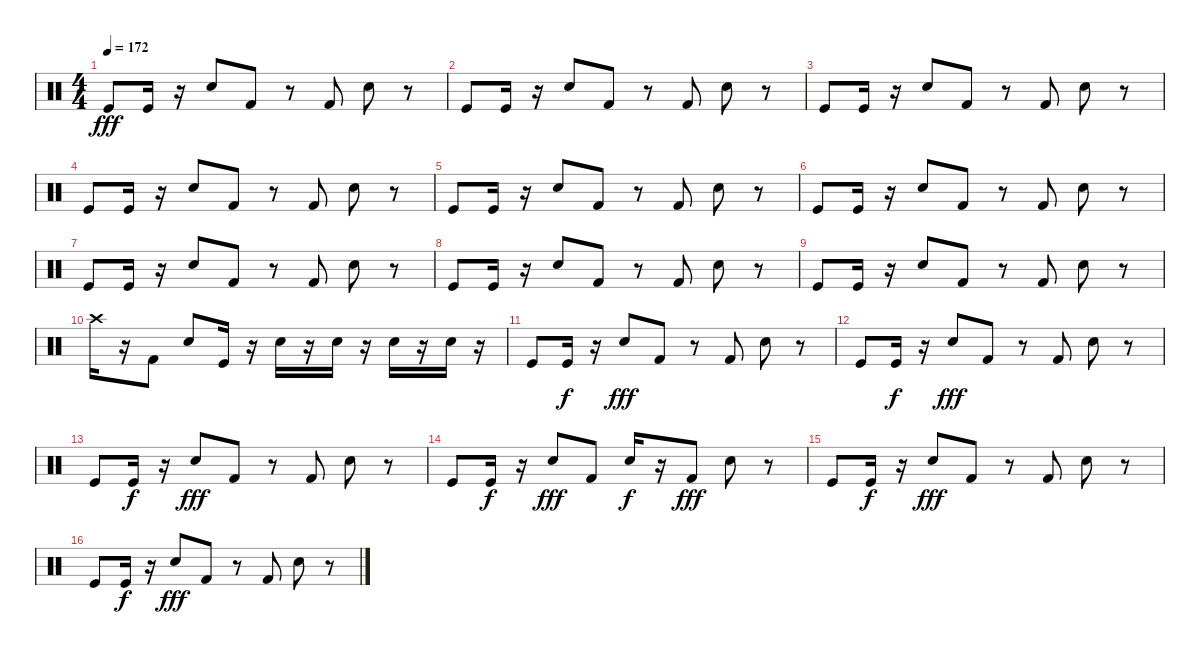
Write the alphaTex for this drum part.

\track "" {instrument percussion}
\staff {score}
\articulation defaults
\ts (4 4)
\tempo 172
\clef neutral
\ks c "Kick (hit)".8{dy fff} "Kick (hit)".16
r.16 "Snare (hit) 2".8 "Kick (hit) 2".8 r.8 "Kick (hit) 2".8 "Snare (hit) 2".8 r.8 |
"Kick (hit)".8 "Kick (hit)".16 r.16 "Snare (hit) 2".8 "Kick (hit) 2".8 r.8 "Kick (hit) 2".8 "Snare (hit) 2".8 r.8 |
"Kick (hit)".8 "Kick (hit)".16 r.16 "Snare (hit) 2".8 "Kick (hit) 2".8 r.8 "Kick (hit) 2".8 "Snare (hit) 2".8 r.8 |
"Kick (hit)".8 "Kick (hit)".16 r.16 "Snare (hit) 2".8 "Kick (hit) 2".8 r.8 "Kick (hit) 2".8 "Snare (hit) 2".8 r.8 |
"Kick (hit)".8 "Kick (hit)".16 r.16 "Snare (hit) 2".8 "Kick (hit) 2".8 r.8 "Kick (hit) 2".8 "Snare (hit) 2".8 r.8 |
"Kick (hit)".8 "Kick (hit)".16 r.16 "Snare (hit) 2".8 "Kick (hit) 2".8 r.8 "Kick (hit) 2".8 "Snare (hit) 2".8 r.8 |
"Kick (hit)".8 "Kick (hit)".16 r.16 "Snare (hit) 2".8 "Kick (hit) 2".8 r.8 "Kick (hit) 2".8 "Snare (hit) 2".8 r.8 |
"Kick (hit)".8 "Kick (hit)".16 r.16 "Snare (hit) 2".8 "Kick (hit) 2".8 r.8 "Kick (hit) 2".8 "Snare (hit) 2".8 r.8 |
"Kick (hit)".8 "Kick (hit)".16 r.16 "Snare (hit) 2".8 "Kick (hit) 2".8 r.8 "Kick (hit) 2".8 "Snare (hit) 2".8 r.8 |
"Crash high (hit)".16 r.16 "Kick (hit) 2".8 "Snare (hit) 2".8 "Kick (hit)".16 r.16 "Snare (hit) 2".16 r.16 "Snare (hit) 2".16 r.16 "Snare (hit) 2".16 r.16 "Snare (hit) 2".16 r.16 |
"Kick (hit)".8 "Kick (hit)".16{dy f} r.16 "Snare (hit) 2".8{dy fff} "Kick (hit) 2".8 r.8 "Kick (hit) 2".8 "Snare (hit) 2".8 r.8 |
"Kick (hit)".8 "Kick (hit)".16{dy f} r.16 "Snare (hit) 2".8{dy fff} "Kick (hit) 2".8 r.8 "Kick (hit) 2".8 "Snare (hit) 2".8 r.8 |
"Kick (hit)".8 "Kick (hit)".16{dy f} r.16 "Snare (hit) 2".8{dy fff} "Kick (hit) 2".8 r.8 "Kick (hit) 2".8 "Snare (hit) 2".8 r.8 |
"Kick (hit)".8 "Kick (hit)".16{dy f} r.16 "Snare (hit) 2".8{dy fff} "Kick (hit) 2".8 "Snare (hit) 2".16{dy f} r.16 "Kick (hit) 2".8{dy fff} "Snare (hit) 2".8 r.8 |
"Kick (hit)".8 "Kick (hit)".16{dy f} r.16 "Snare (hit) 2".8{dy fff} "Kick (hit) 2".8 r.8 "Kick (hit) 2".8 "Snare (hit) 2".8 r.8 |
"Kick (hit)".8 "Kick (hit)".16{dy f} r.16 "Snare (hit) 2".8{dy fff} "Kick (hit) 2".8 r.8 "Kick (hit) 2".8 "Snare (hit) 2".8 r.8
